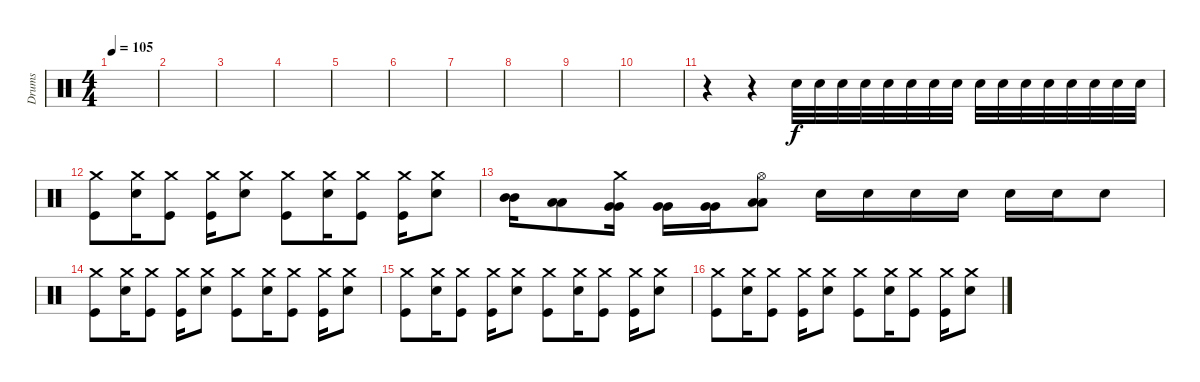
\track ("Drums" "Drums") {instrument percussion}
\staff {score}
\articulation defaults
\ts (4 4)
\tempo 105
\clef neutral
\ks c
|
|
|
|
|
|
|
|
|
|
r.4 r.4 "Electric Snare (hit)".32 "Electric Snare (hit)".32 "Electric Snare (hit)".32 "Electric Snare (hit)".32 "Electric Snare (hit)".32 "Electric Snare (hit)".32 "Electric Snare (hit)".32 "Electric Snare (hit)".32 "Electric Snare (hit)".32 "Electric Snare (hit)".32 "Electric Snare (hit)".32 "Electric Snare (hit)".32 "Electric Snare (hit)".32 "Electric Snare (hit)".32 "Electric Snare (hit)".32 "Electric Snare (hit)".32 |
("Crash medium (hit)" "Kick (hit)").8 ("Crash medium (hit)" "Electric Snare (hit)").16 ("Crash medium (hit)" "Kick (hit)").8 ("Crash medium (hit)" "Kick (hit)").16 ("Crash medium (hit)" "Electric Snare (hit)").8 ("Crash medium (hit)" "Kick (hit)").8 ("Crash medium (hit)" "Electric Snare (hit)").16 ("Crash medium (hit)" "Kick (hit)").8 ("Crash medium (hit)" "Kick (hit)").16 ("Crash medium (hit)" "Electric Snare (hit)").8 |
("Mid Tom (hit)" "Mid Tom (hit)").16 ("Low Tom (hit)" "Low Tom (hit)").8 ("Crash medium (hit)" "Very Low Tom (hit)" "Very Low Tom (hit)").16 ("Very Low Tom (hit)" "Very Low Tom (hit)").16 ("Very Low Tom (hit)" "Very Low Tom (hit)").16 ("Hi-Hat (open)" "Low Floor Tom (hit)" "Low Floor Tom (hit)").8 "Electric Snare (hit)".16 "Electric Snare (hit)".16 "Electric Snare (hit)".16 "Electric Snare (hit)".16 "Electric Snare (hit)".16 "Electric Snare (hit)".16 "Electric Snare (hit)".8 |
("Crash medium (hit)" "Kick (hit)").8 ("Crash medium (hit)" "Electric Snare (hit)").16 ("Crash medium (hit)" "Kick (hit)").8 ("Crash medium (hit)" "Kick (hit)").16 ("Crash medium (hit)" "Electric Snare (hit)").8 ("Crash medium (hit)" "Kick (hit)").8 ("Crash medium (hit)" "Electric Snare (hit)").16 ("Crash medium (hit)" "Kick (hit)").8 ("Crash medium (hit)" "Kick (hit)").16 ("Crash medium (hit)" "Electric Snare (hit)").8 |
("Crash medium (hit)" "Kick (hit)").8 ("Crash medium (hit)" "Electric Snare (hit)").16 ("Crash medium (hit)" "Kick (hit)").8 ("Crash medium (hit)" "Kick (hit)").16 ("Crash medium (hit)" "Electric Snare (hit)").8 ("Crash medium (hit)" "Kick (hit)").8 ("Crash medium (hit)" "Electric Snare (hit)").16 ("Crash medium (hit)" "Kick (hit)").8 ("Crash medium (hit)" "Kick (hit)").16 ("Crash medium (hit)" "Electric Snare (hit)").8 |
("Crash medium (hit)" "Kick (hit)").8 ("Crash medium (hit)" "Electric Snare (hit)").16 ("Crash medium (hit)" "Kick (hit)").8 ("Crash medium (hit)" "Kick (hit)").16 ("Crash medium (hit)" "Electric Snare (hit)").8 ("Crash medium (hit)" "Kick (hit)").8 ("Crash medium (hit)" "Electric Snare (hit)").16 ("Crash medium (hit)" "Kick (hit)").8 ("Crash medium (hit)" "Kick (hit)").16 ("Crash medium (hit)" "Electric Snare (hit)").8
